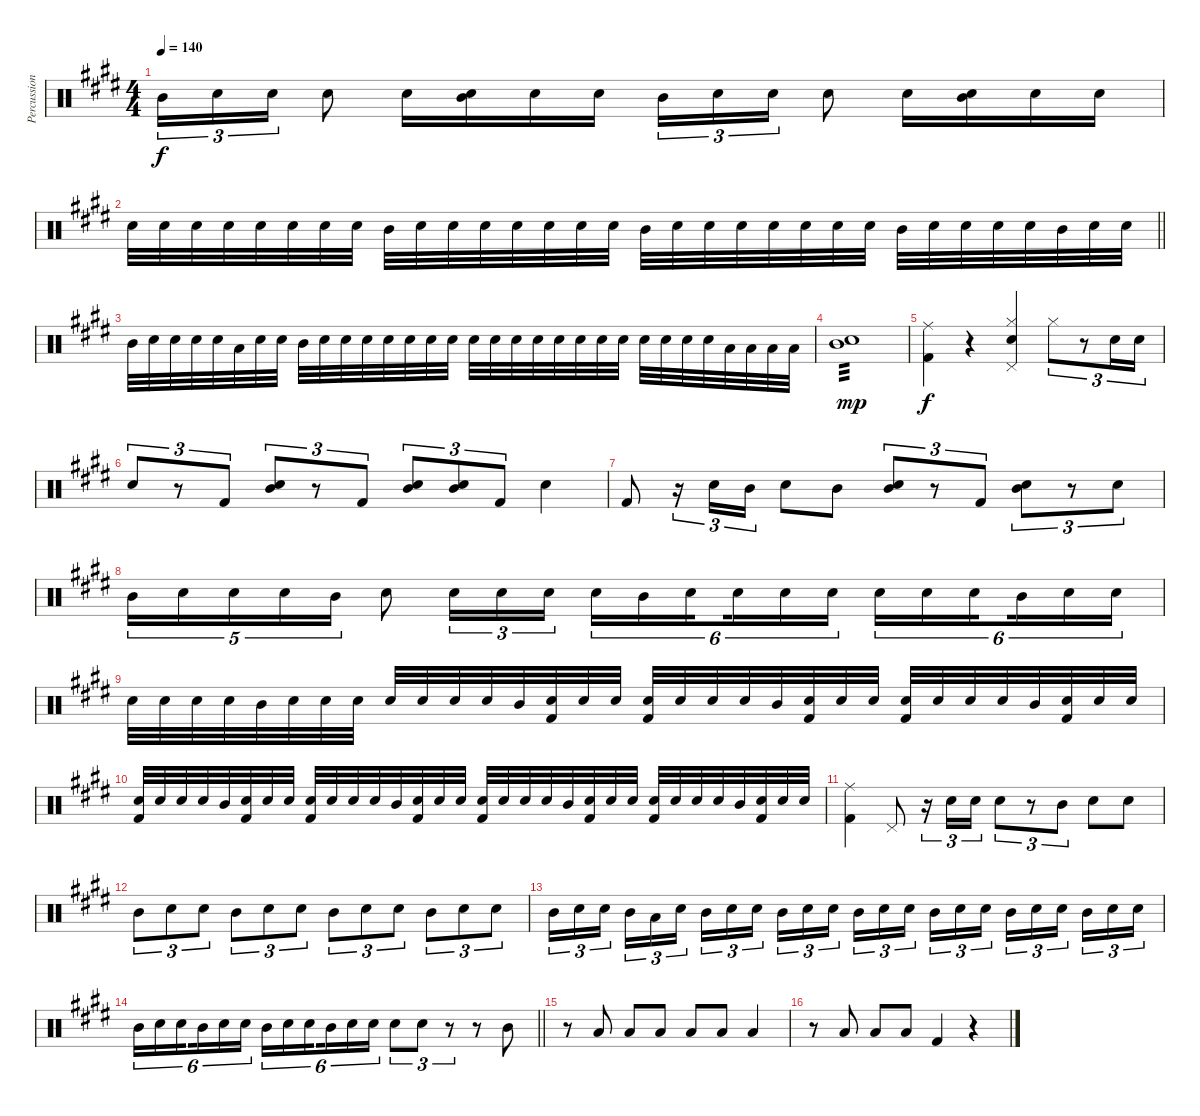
\track ("Percussion" "Percussion") {instrument percussion}
\staff {score}
\articulation defaults
\ts (4 4)
\tempo 140
\clef neutral
\ks e "Mid Tom (hit)".16{tu (3 2) dy f} "Snare (hit) 2".16{tu (3 2)} "Snare (hit) 2".16{tu (3 2)} "Snare (hit) 2".8 "Snare (hit) 2".16
("Mid Tom (hit)" "Snare (hit) 2").16 "Snare (hit) 2".16 "Snare (hit) 2".16 "Mid Tom (hit)".16{tu (3 2)} "Snare (hit) 2".16{tu (3 2)} "Snare (hit) 2".16{tu (3 2)} "Snare (hit) 2".8 "Snare (hit) 2".16 ("Mid Tom (hit)" "Snare (hit) 2").16 "Snare (hit) 2".16 "Snare (hit) 2".16 |
\barLineRight lightlight "Snare (hit) 2".32 "Snare (hit)".32 "Snare (hit) 2".32 "Snare (hit) 2".32 "Snare (hit) 2".32 "Snare (hit) 2".32 "Snare (hit) 2".32 "Snare (hit) 2".32 "Mid Tom (hit)".32 "Snare (hit) 2".32 "Snare (hit) 2".32 "Snare (hit) 2".32 "Snare (hit) 2".32 "Snare (hit) 2".32 "Snare (hit) 2".32 "Snare (hit) 2".32 "Mid Tom (hit)".32 "Snare (hit) 2".32 "Snare (hit) 2".32 "Snare (hit) 2".32 "Snare (hit) 2".32 "Snare (hit) 2".32 "Snare (hit) 2".32 "Snare (hit) 2".32 "Mid Tom (hit)".32 "Snare (hit) 2".32 "Snare (hit) 2".32 "Snare (hit) 2".32 "Snare (hit) 2".32 "Mid Tom (hit)".32 "Snare (hit) 2".32 "Snare (hit) 2".32
|
"Mid Tom (hit)".32 "Snare (hit) 2".32 "Snare (hit) 2".32 "Snare (hit) 2".32 "Snare (hit) 2".32 "Low Floor Tom (hit)".32 "Snare (hit) 2".32 "Snare (hit) 2".32 "Mid Tom (hit)".32 "Snare (hit) 2".32 "Snare (hit) 2".32 "Snare (hit) 2".32 "Snare (hit) 2".32 "Snare (hit) 2".32 "Snare (hit) 2".32 "Snare (hit) 2".32 "Snare (hit) 2".32 "Snare (hit) 2".32 "Snare (hit) 2".32 "Snare (hit) 2".32 "Snare (hit) 2".32 "Snare (hit) 2".32 "Snare (hit) 2".32 "Snare (hit) 2".32 "Snare (hit) 2".32 "Snare (hit) 2".32 "Snare (hit) 2".32 "Snare (hit) 2".32 "Low Tom (hit)".32 "Low Tom (hit)".32 "Low Tom (hit)".32 "Low Tom (hit)".32 |
("Mid Tom (hit)" "Snare (hit) 2").1{tp 3 dy mp} |
("Ride (middle)" "Kick (hit) 2").4{dy f} r.4 ("Hi-Hat (closed)" "Snare (hit) 2" "Pedal Hi-Hat (hit)").4 "Hi-Hat (closed)".8{tu (3 2)} r.8{tu (3 2)} "Snare (hit) 2".16{tu (3 2)} "Snare (hit) 2".16{tu (3 2)} |
"Snare (hit) 2".8{tu (3 2)} r.8{tu (3 2)} "Kick (hit) 2".8{tu (3 2)} ("Mid Tom (hit)" "Snare (hit) 2").8{tu (3 2)} r.8{tu (3 2)} "Kick (hit) 2".8{tu (3 2)} ("Mid Tom (hit)" "Snare (hit) 2").8{tu (3 2)} ("Mid Tom (hit)" "Snare (hit) 2").8{tu (3 2)} "Kick (hit) 2".8{tu (3 2)} "Snare (hit) 2".4 |
"Kick (hit) 2".8 r.16{tu (3 2)} "Snare (hit) 2".16{tu (3 2)} "Mid Tom (hit)".16{tu (3 2)} "Snare (hit) 2".8 "Mid Tom (hit)".8 ("Mid Tom (hit)" "Snare (hit) 2").8{tu (3 2)} r.8{tu (3 2)} "Kick (hit) 2".8{tu (3 2)} ("Mid Tom (hit)" "Snare (hit) 2").8{tu (3 2)} r.8{tu (3 2)} "Snare (hit) 2".8{tu (3 2)} |
"Mid Tom (hit)".16{tu (5 4)} "Snare (hit) 2".16{tu (5 4)} "Snare (hit) 2".16{tu (5 4)} "Snare (hit) 2".16{tu (5 4)} "Mid Tom (hit)".16{tu (5 4)} "Snare (hit) 2".8 "Snare (hit) 2".16{tu (3 2)} "Snare (hit) 2".16{tu (3 2)} "Snare (hit) 2".16{tu (3 2)} "Snare (hit) 2".16{tu (6 4)} "Mid Tom (hit)".16{tu (6 4)} "Snare (hit) 2".16{tu (6 4) beam splitsecondary} "Snare (hit) 2".16{tu (6 4)} "Snare (hit) 2".16{tu (6 4)} "Snare (hit) 2".16{tu (6 4)} "Snare (hit) 2".16{tu (6 4)} "Snare (hit) 2".16{tu (6 4)} "Snare (hit) 2".16{tu (6 4) beam splitsecondary} "Mid Tom (hit)".16{tu (6 4)} "Snare (hit) 2".16{tu (6 4)} "Snare (hit) 2".16{tu (6 4)} |
"Snare (hit) 2".32 "Snare (hit) 2".32 "Snare (hit) 2".32 "Snare (hit) 2".32 "Mid Tom (hit)".32 "Snare (hit) 2".32 "Snare (hit) 2".32 "Snare (hit) 2".32 "Snare (hit) 2".32 "Snare (hit) 2".32 "Snare (hit) 2".32 "Snare (hit) 2".32 "Mid Tom (hit)".32 ("Snare (hit) 2" "Kick (hit) 2").32 "Snare (hit) 2".32 "Snare (hit) 2".32 ("Snare (hit) 2" "Kick (hit) 2").32 "Snare (hit) 2".32 "Snare (hit) 2".32 "Snare (hit) 2".32 "Mid Tom (hit)".32 ("Snare (hit) 2" "Kick (hit) 2").32 "Snare (hit) 2".32 "Snare (hit) 2".32 ("Snare (hit) 2" "Kick (hit) 2").32 "Snare (hit) 2".32 "Snare (hit) 2".32 "Snare (hit) 2".32 "Mid Tom (hit)".32 ("Snare (hit) 2" "Kick (hit) 2").32 "Snare (hit) 2".32 "Snare (hit) 2".32 |
("Snare (hit) 2" "Kick (hit) 2").32 "Snare (hit) 2".32 "Snare (hit) 2".32 "Snare (hit) 2".32 "Mid Tom (hit)".32 ("Snare (hit) 2" "Kick (hit) 2").32 "Snare (hit) 2".32 "Snare (hit) 2".32 ("Snare (hit) 2" "Kick (hit) 2").32 "Snare (hit) 2".32 "Snare (hit) 2".32 "Snare (hit) 2".32 "Mid Tom (hit)".32 ("Snare (hit) 2" "Kick (hit) 2").32 "Snare (hit) 2".32 "Snare (hit) 2".32 ("Snare (hit) 2" "Kick (hit) 2").32 "Snare (hit) 2".32 "Snare (hit) 2".32 "Snare (hit) 2".32 "Mid Tom (hit)".32 ("Snare (hit) 2" "Kick (hit) 2").32 "Snare (hit) 2".32 "Snare (hit) 2".32 ("Snare (hit) 2" "Kick (hit) 2").32 "Snare (hit) 2".32 "Snare (hit) 2".32 "Snare (hit) 2".32 "Mid Tom (hit)".32 ("Snare (hit) 2" "Kick (hit) 2").32 "Snare (hit) 2".32 "Snare (hit) 2".32 |
("Ride (middle)" "Kick (hit) 2").4 "Pedal Hi-Hat (hit)".8 r.16{tu (3 2)} "Snare (hit) 2".16{tu (3 2)} "Snare (hit) 2".16{tu (3 2)} "Snare (hit) 2".8{tu (3 2)} r.8{tu (3 2)} "Mid Tom (hit)".8{tu (3 2)} "Snare (hit) 2".8 "Snare (hit) 2".8 |
"Mid Tom (hit)".8{tu (3 2)} "Snare (hit) 2".8{tu (3 2)} "Snare (hit) 2".8{tu (3 2)} "Mid Tom (hit)".8{tu (3 2)} "Snare (hit) 2".8{tu (3 2)} "Snare (hit) 2".8{tu (3 2)} "Mid Tom (hit)".8{tu (3 2)} "Snare (hit) 2".8{tu (3 2)} "Snare (hit) 2".8{tu (3 2)} "Mid Tom (hit)".8{tu (3 2)} "Snare (hit) 2".8{tu (3 2)} "Snare (hit) 2".8{tu (3 2)} |
"Mid Tom (hit)".16{tu (3 2)} "Snare (hit) 2".16{tu (3 2)} "Snare (hit) 2".16{tu (3 2) beam splitsecondary} "Mid Tom (hit)".16{tu (3 2)} "Low Tom (hit)".16{tu (3 2)} "Snare (hit) 2".16{tu (3 2)} "Mid Tom (hit)".16{tu (3 2)} "Snare (hit) 2".16{tu (3 2)} "Snare (hit) 2".16{tu (3 2) beam splitsecondary} "Mid Tom (hit)".16{tu (3 2)} "Snare (hit) 2".16{tu (3 2)} "Snare (hit) 2".16{tu (3 2)} "Mid Tom (hit)".16{tu (3 2)} "Snare (hit) 2".16{tu (3 2)} "Snare (hit) 2".16{tu (3 2) beam splitsecondary} "Mid Tom (hit)".16{tu (3 2)} "Snare (hit) 2".16{tu (3 2)} "Snare (hit) 2".16{tu (3 2)} "Mid Tom (hit)".16{tu (3 2)} "Snare (hit) 2".16{tu (3 2)} "Snare (hit) 2".16{tu (3 2) beam splitsecondary} "Mid Tom (hit)".16{tu (3 2)} "Snare (hit) 2".16{tu (3 2)} "Snare (hit) 2".16{tu (3 2)} |
\barLineRight lightlight "Mid Tom (hit)".16{tu (6 4)} "Snare (hit) 2".16{tu (6 4)} "Snare (hit) 2".16{tu (6 4) beam splitsecondary} "Mid Tom (hit)".16{tu (6 4)} "Snare (hit) 2".16{tu (6 4)} "Snare (hit) 2".16{tu (6 4)} "Mid Tom (hit)".16{tu (6 4)} "Snare (hit) 2".16{tu (6 4)} "Snare (hit) 2".16{tu (6 4) beam splitsecondary} "Mid Tom (hit)".16{tu (6 4)} "Snare (hit) 2".16{tu (6 4)} "Snare (hit) 2".16{tu (6 4)} "Snare (hit) 2".8{tu (3 2)} "Snare (hit) 2".8{tu (3 2)}
r.8{tu (3 2)} r.8 "Mid Tom (hit)".8 |
r.8 "Low Tom (hit)".8 "Low Tom (hit)".8 "Low Tom (hit)".8 "Low Tom (hit)".8 "Low Tom (hit)".8 "Low Tom (hit)".4 |
r.8 "Low Floor Tom (hit)".8 "Low Floor Tom (hit)".8 "Low Floor Tom (hit)".8 "Kick (hit) 2".4 r.4
